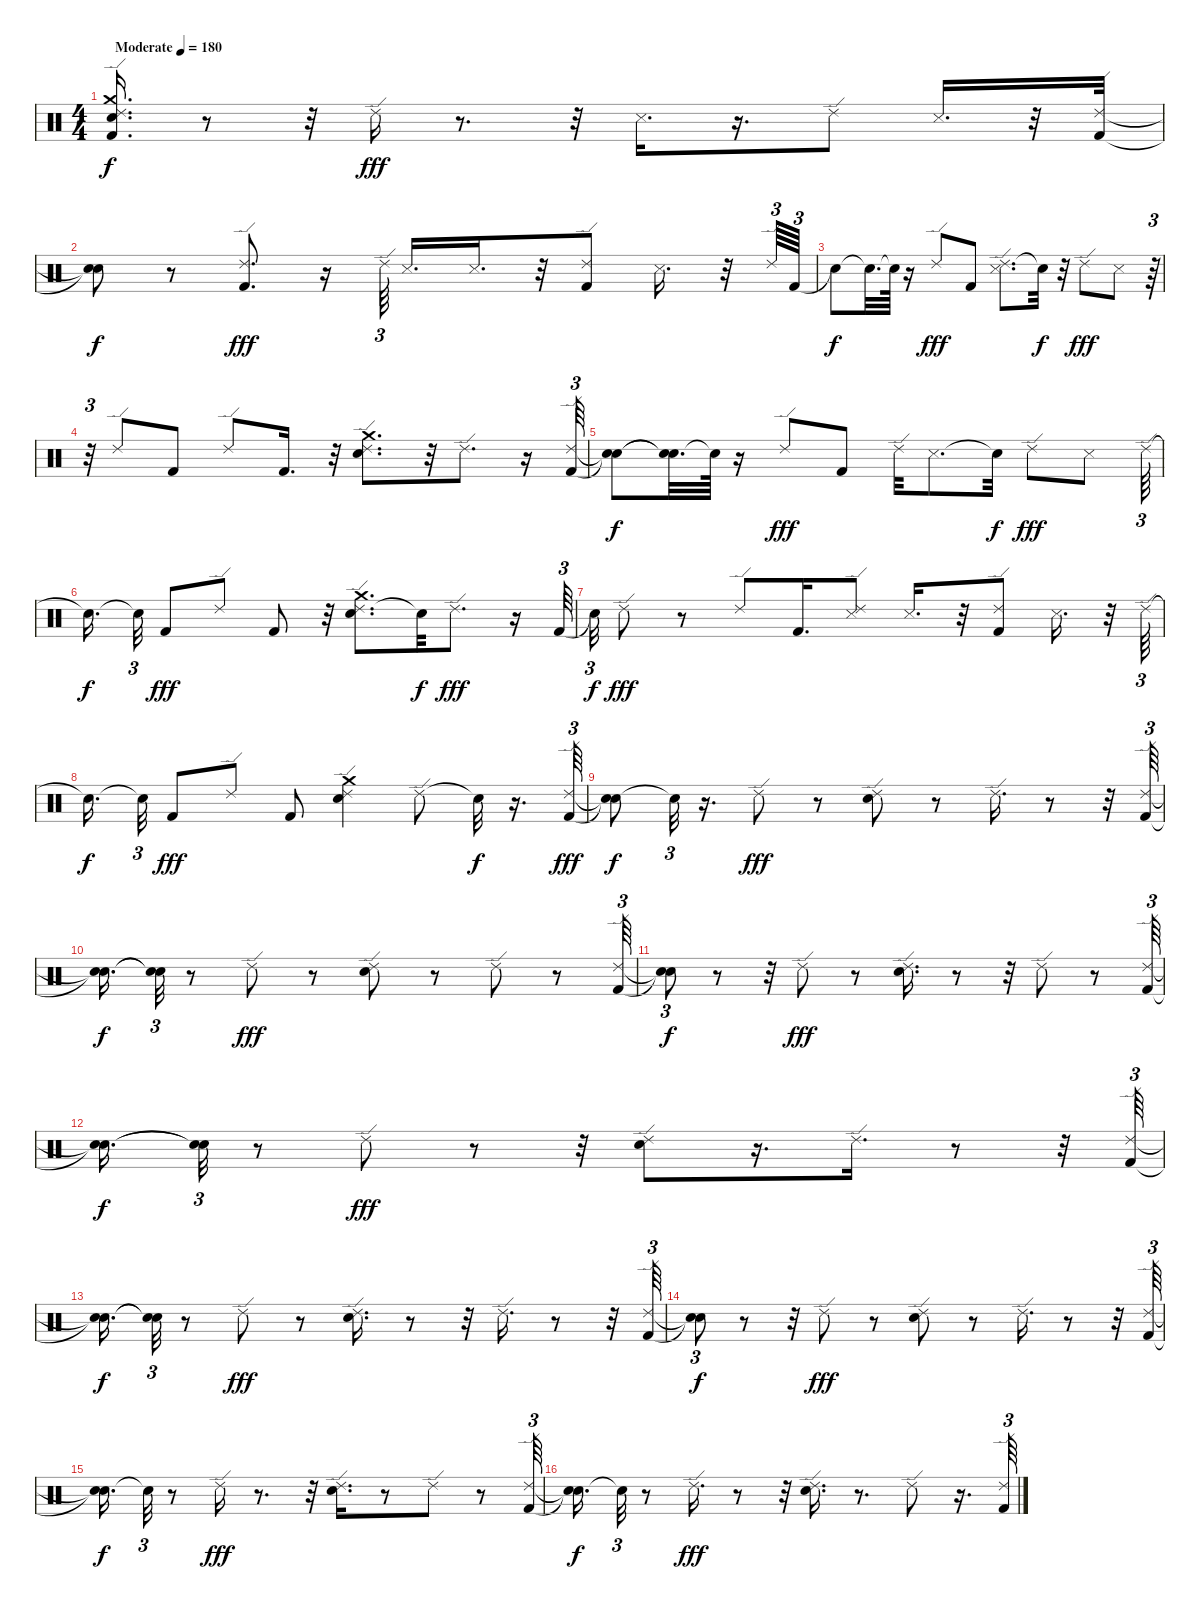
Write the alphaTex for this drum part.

\track "" {instrument percussion}
\staff {score}
\articulation defaults
\ts (4 4)
\tempo (180 "Moderate")
\clef neutral
\ks c
("Kick (hit) 2" "Snare (hit) 2" "Crash medium (hit)" "Ride (edge) 2").16{d dy f} r.8 r.32 "Ride (edge) 2".16{dy fff} r.8{d} r.32 "Snare (side stick) 3".16{d} r.16{d} "Ride (edge) 2".8 "Snare (side stick) 3".16{d} r.32 ("Kick (hit) 2" "Ride (edge) 2").32 |
("Snare (hit)"{t} "Snare (hit)"{t}).8{dy f} r.8 ("Ride (edge) 2" "Kick (hit) 2").8{d dy fff} r.16 "Ride (edge) 2".64{tu (3 2) beam splitsecondary} "Snare (side stick) 3".16{d} "Snare (side stick) 3".16{d} r.32 ("Kick (hit) 2" "Ride (edge) 2").8 "Snare (side stick) 3".16{d} r.32 "Ride (edge) 2".64{tu (3 2)} "Kick (hit) 2".64{tu (3 2)} |
"Snare (hit)"{t}.8{dy f} "Snare (hit)"{t}.32{d} "Snare (hit)"{t}.64 r.16 "Ride (edge) 2".8{dy fff} "Kick (hit) 2".8 ("Ride (edge) 2" "Snare (side stick) 3").8{d} "Snare (hit)"{t}.32{dy f} r.32 "Ride (edge) 2".8{dy fff} "Snare (side stick) 3".8 r.64{tu (3 2)} |
r.32{tu (3 2)} "Ride (edge) 2".8 "Kick (hit) 2".8 "Ride (edge) 2".8 "Kick (hit) 2".16{d} r.32 ("Ride (edge) 2" "Crash medium (hit)" "Snare (hit) 2").8{d} r.32 "Ride (edge) 2".8{d} r.16 ("Kick (hit) 2" "Ride (edge) 2").64{tu (3 2)} |
("Snare (hit)"{t} "Snare (hit)"{t}).8{dy f} ("Snare (hit)"{t} "Snare (hit)"{t}).32{d} "Snare (hit)"{t}.64 r.16 "Ride (edge) 2".8{dy fff} "Kick (hit) 2".8 "Ride (edge) 2".32 "Snare (side stick) 3".8{d} "Snare (hit)"{t}.32{dy f} "Ride (edge) 2".8{dy fff} "Snare (side stick) 3".8 "Ride (edge) 2".64{tu (3 2)} |
"Snare (hit)"{t}.16{d dy f beam splitsecondary} "Snare (hit)"{t}.32{tu (3 2)} "Kick (hit) 2".8{dy fff} "Ride (edge) 2".8 "Kick (hit) 2".8 r.32 ("Ride (edge) 2" "Crash medium (hit)" "Snare (hit) 2").8{d} "Snare (hit)"{t}.32{dy f} "Ride (edge) 2".8{d dy fff} r.16 "Kick (hit) 2".64{tu (3 2)} |
"Snare (hit)"{t}.32{tu (3 2) dy f} "Ride (edge) 2".8{dy fff} r.8 "Ride (edge) 2".8 "Kick (hit) 2".16{d} ("Snare (side stick) 3" "Ride (edge) 2").8 "Snare (side stick) 3".16{d} r.32 ("Kick (hit) 2" "Ride (edge) 2").8 "Snare (side stick) 3".16{d} r.32 "Ride (edge) 2".64{tu (3 2)} |
"Snare (hit)"{t}.16{d dy f beam splitsecondary} "Snare (hit)"{t}.32{tu (3 2)} "Kick (hit) 2".8{dy fff} "Ride (edge) 2".8 "Kick (hit) 2".8 ("Ride (edge) 2" "Crash medium (hit)" "Snare (hit) 2").4 "Ride (edge) 2".8 "Snare (hit)"{t}.32{dy f} r.16{d} ("Kick (hit) 2" "Ride (edge) 2").64{tu (3 2) dy fff} |
("Snare (hit)"{t} "Snare (hit)"{t}).8{dy f} "Snare (hit)"{t}.32{tu (3 2)} r.16{d} "Ride (edge) 2".8{dy fff} r.8 ("Ride (edge) 2" "Snare (hit) 2").8 r.8 "Ride (edge) 2".16{d} r.8 r.32 ("Kick (hit) 2" "Ride (edge) 2").64{tu (3 2)} |
("Snare (hit)"{t} "Snare (hit)"{t}).16{d dy f} ("Snare (hit)"{t} "Snare (hit)"{t}).32{tu (3 2)} r.8 "Ride (edge) 2".8{dy fff} r.8 ("Ride (edge) 2" "Snare (hit) 2").8 r.8 "Ride (edge) 2".8 r.8 ("Kick (hit) 2" "Ride (edge) 2").64{tu (3 2)} |
("Snare (hit)"{t} "Snare (hit)"{t}).8{tu (3 2) dy f} r.8 r.32 "Ride (edge) 2".8{dy fff} r.8 ("Ride (edge) 2" "Snare (hit) 2").16{d} r.8 r.32 "Ride (edge) 2".8 r.8 ("Kick (hit) 2" "Ride (edge) 2").64{tu (3 2)} |
("Snare (hit)"{t} "Snare (hit)"{t}).16{d dy f} ("Snare (hit)"{t} "Snare (hit)"{t}).32{tu (3 2)} r.8 "Ride (edge) 2".8{dy fff} r.8 r.32 ("Ride (edge) 2" "Snare (hit) 2").8 r.16{d} "Ride (edge) 2".16{d} r.8 r.32 ("Kick (hit) 2" "Ride (edge) 2").64{tu (3 2)} |
("Snare (hit)"{t} "Snare (hit)"{t}).16{d dy f} ("Snare (hit)"{t} "Snare (hit)"{t}).32{tu (3 2)} r.8 "Ride (edge) 2".8{dy fff} r.8 ("Ride (edge) 2" "Snare (hit) 2").16{d} r.8 r.32 "Ride (edge) 2".16{d} r.8 r.32 ("Kick (hit) 2" "Ride (edge) 2").64{tu (3 2)} |
("Snare (hit)"{t} "Snare (hit)"{t}).8{tu (3 2) dy f} r.8 r.32 "Ride (edge) 2".8{dy fff} r.8 ("Ride (edge) 2" "Snare (hit) 2").8 r.8 "Ride (edge) 2".16{d} r.8 r.32 ("Kick (hit) 2" "Ride (edge) 2").64{tu (3 2)} |
("Snare (hit)"{t} "Snare (hit)"{t}).16{d dy f} "Snare (hit)"{t}.32{tu (3 2)} r.8 "Ride (edge) 2".16{dy fff} r.8{d} r.32 ("Ride (edge) 2" "Snare (hit) 2").16{d} r.8 "Ride (edge) 2".8 r.8 ("Kick (hit) 2" "Ride (edge) 2").64{tu (3 2)} |
("Snare (hit)"{t} "Snare (hit)"{t}).16{d dy f} "Snare (hit)"{t}.32{tu (3 2)} r.8 "Ride (edge) 2".16{d dy fff} r.8 r.32 ("Snare (hit) 2" "Ride (edge) 2").16{d} r.8{d} "Ride (edge) 2".8 r.16{d} ("Kick (hit) 2" "Ride (edge) 2").64{tu (3 2)}
